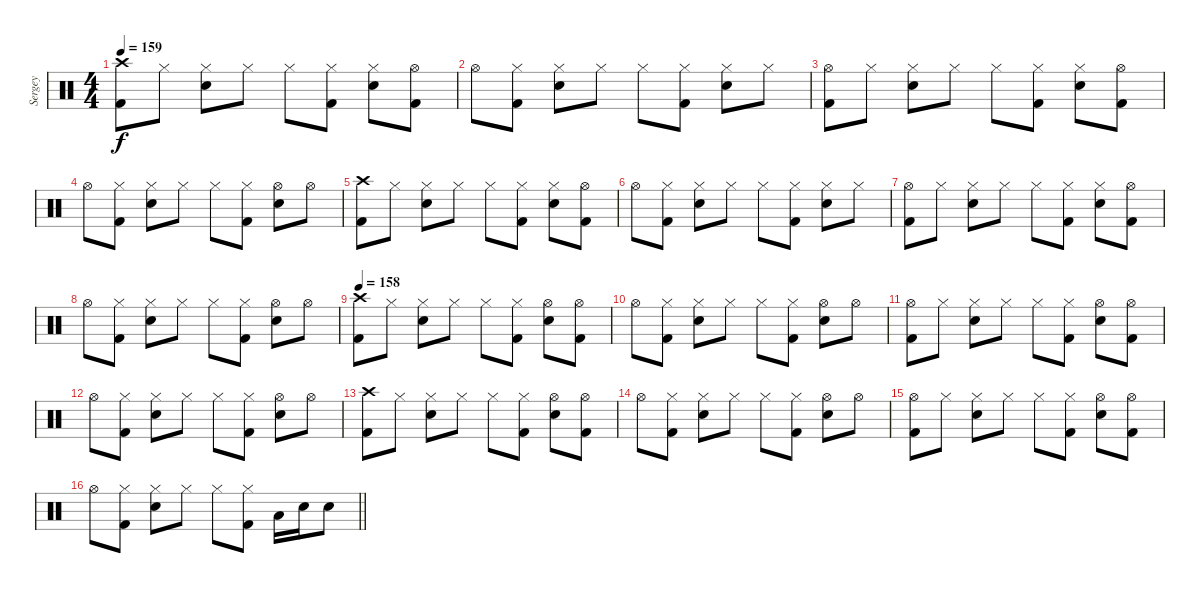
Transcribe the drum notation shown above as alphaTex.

\track ("Sergey" "Sergey") {instrument percussion}
\staff {score}
\articulation defaults
\ts (4 4)
\tempo 159
\clef neutral
\ks c
("Crash high (hit)" "Kick (hit) 2").8{dy f} "Hi-Hat (closed)".8 ("Hi-Hat (closed)" "Electric Snare (hit)").8 "Hi-Hat (closed)".8 "Hi-Hat (closed)".8 ("Hi-Hat (closed)" "Kick (hit) 2").8 ("Hi-Hat (closed)" "Electric Snare (hit)").8 ("Hi-Hat (open)" "Kick (hit) 2").8 |
"Hi-Hat (open)".8 ("Hi-Hat (closed)" "Kick (hit) 2").8 ("Hi-Hat (closed)" "Electric Snare (hit)").8 "Hi-Hat (closed)".8 "Hi-Hat (closed)".8 ("Hi-Hat (closed)" "Kick (hit) 2").8 ("Hi-Hat (closed)" "Electric Snare (hit)").8 "Hi-Hat (closed)".8 |
("Hi-Hat (open)" "Kick (hit) 2").8 "Hi-Hat (closed)".8 ("Hi-Hat (closed)" "Electric Snare (hit)").8 "Hi-Hat (closed)".8 "Hi-Hat (closed)".8 ("Hi-Hat (closed)" "Kick (hit) 2").8 ("Hi-Hat (closed)" "Electric Snare (hit)").8 ("Hi-Hat (open)" "Kick (hit) 2").8 |
"Hi-Hat (open)".8 ("Hi-Hat (closed)" "Kick (hit) 2").8 ("Hi-Hat (closed)" "Electric Snare (hit)").8 "Hi-Hat (closed)".8 "Hi-Hat (closed)".8 ("Hi-Hat (closed)" "Kick (hit) 2").8 ("Hi-Hat (open)" "Electric Snare (hit)").8 "Hi-Hat (open)".8 |
("Crash high (hit)" "Kick (hit) 2").8 "Hi-Hat (closed)".8 ("Hi-Hat (closed)" "Electric Snare (hit)").8 "Hi-Hat (closed)".8 "Hi-Hat (closed)".8 ("Hi-Hat (closed)" "Kick (hit) 2").8 ("Hi-Hat (closed)" "Electric Snare (hit)").8 ("Hi-Hat (open)" "Kick (hit) 2").8 |
"Hi-Hat (open)".8 ("Hi-Hat (closed)" "Kick (hit) 2").8 ("Hi-Hat (closed)" "Electric Snare (hit)").8 "Hi-Hat (closed)".8 "Hi-Hat (closed)".8 ("Hi-Hat (closed)" "Kick (hit) 2").8 ("Hi-Hat (closed)" "Electric Snare (hit)").8 "Hi-Hat (closed)".8 |
("Hi-Hat (open)" "Kick (hit) 2").8 "Hi-Hat (closed)".8 ("Hi-Hat (closed)" "Electric Snare (hit)").8 "Hi-Hat (closed)".8 "Hi-Hat (closed)".8 ("Hi-Hat (closed)" "Kick (hit) 2").8 ("Hi-Hat (closed)" "Electric Snare (hit)").8 ("Hi-Hat (open)" "Kick (hit) 2").8 |
"Hi-Hat (open)".8 ("Hi-Hat (closed)" "Kick (hit) 2").8 ("Hi-Hat (closed)" "Electric Snare (hit)").8 "Hi-Hat (closed)".8 "Hi-Hat (closed)".8 ("Hi-Hat (closed)" "Kick (hit) 2").8 ("Hi-Hat (open)" "Electric Snare (hit)").8 "Hi-Hat (open)".8 |
\tempo 158
("Crash high (hit)" "Kick (hit) 2").8 "Hi-Hat (closed)".8 ("Hi-Hat (closed)" "Electric Snare (hit)").8 "Hi-Hat (closed)".8 "Hi-Hat (closed)".8 ("Hi-Hat (closed)" "Kick (hit) 2").8 ("Hi-Hat (open)" "Electric Snare (hit)").8 ("Hi-Hat (open)" "Kick (hit) 2").8 |
"Hi-Hat (open)".8 ("Hi-Hat (closed)" "Kick (hit) 2").8 ("Hi-Hat (closed)" "Electric Snare (hit)").8 "Hi-Hat (closed)".8 "Hi-Hat (closed)".8 ("Hi-Hat (closed)" "Kick (hit) 2").8 ("Hi-Hat (open)" "Electric Snare (hit)").8 "Hi-Hat (open)".8 |
("Hi-Hat (open)" "Kick (hit) 2").8 "Hi-Hat (closed)".8 ("Hi-Hat (closed)" "Electric Snare (hit)").8 "Hi-Hat (closed)".8 "Hi-Hat (closed)".8 ("Hi-Hat (closed)" "Kick (hit) 2").8 ("Hi-Hat (open)" "Electric Snare (hit)").8 ("Hi-Hat (open)" "Kick (hit) 2").8 |
"Hi-Hat (open)".8 ("Hi-Hat (closed)" "Kick (hit) 2").8 ("Hi-Hat (closed)" "Electric Snare (hit)").8 "Hi-Hat (closed)".8 "Hi-Hat (closed)".8 ("Hi-Hat (closed)" "Kick (hit) 2").8 ("Hi-Hat (open)" "Electric Snare (hit)").8 "Hi-Hat (open)".8 |
("Crash high (hit)" "Kick (hit) 2").8 "Hi-Hat (closed)".8 ("Hi-Hat (closed)" "Electric Snare (hit)").8 "Hi-Hat (closed)".8 "Hi-Hat (closed)".8 ("Hi-Hat (closed)" "Kick (hit) 2").8 ("Hi-Hat (open)" "Electric Snare (hit)").8 ("Hi-Hat (open)" "Kick (hit) 2").8 |
"Hi-Hat (open)".8 ("Hi-Hat (closed)" "Kick (hit) 2").8 ("Hi-Hat (closed)" "Electric Snare (hit)").8 "Hi-Hat (closed)".8 "Hi-Hat (closed)".8 ("Hi-Hat (closed)" "Kick (hit) 2").8 ("Hi-Hat (open)" "Electric Snare (hit)").8 "Hi-Hat (open)".8 |
("Hi-Hat (open)" "Kick (hit) 2").8 "Hi-Hat (closed)".8 ("Hi-Hat (closed)" "Electric Snare (hit)").8 "Hi-Hat (closed)".8 "Hi-Hat (closed)".8 ("Hi-Hat (closed)" "Kick (hit) 2").8 ("Hi-Hat (open)" "Electric Snare (hit)").8 ("Hi-Hat (open)" "Kick (hit) 2").8 |
\barLineRight lightlight "Hi-Hat (open)".8
("Hi-Hat (closed)" "Kick (hit) 2").8 ("Hi-Hat (closed)" "Electric Snare (hit)").8 "Hi-Hat (closed)".8 "Hi-Hat (closed)".8 ("Hi-Hat (closed)" "Kick (hit) 2").8 "Low Tom (hit)".16 "Electric Snare (hit)".16 "Electric Snare (hit)".8
